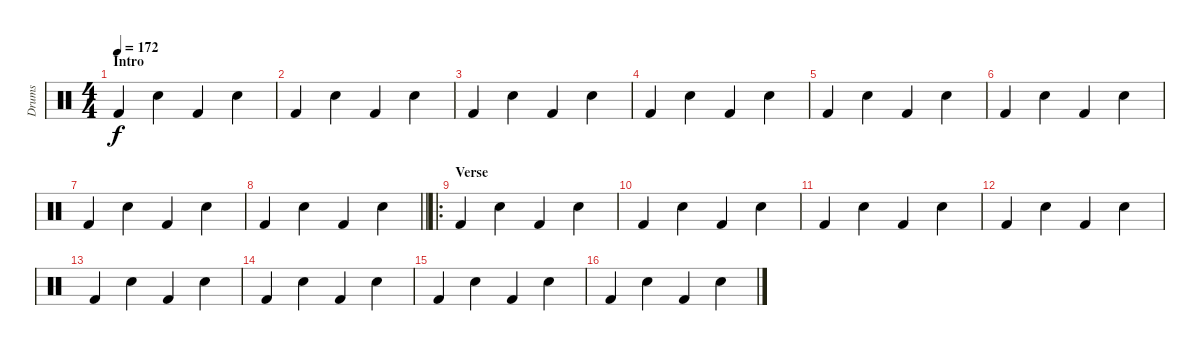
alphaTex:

\track ("Drums" "Drums") {instrument percussion}
\staff {score}
\articulation defaults
\ts (4 4)
\section ("" "Intro")
\tempo 172
\clef neutral
\ks c "Kick (hit) 2".4{dy f} "Snare (hit) 2".4 "Kick (hit) 2".4 "Snare (hit) 2".4
|
"Kick (hit) 2".4 "Snare (hit) 2".4 "Kick (hit) 2".4 "Snare (hit) 2".4 |
"Kick (hit) 2".4 "Snare (hit) 2".4 "Kick (hit) 2".4 "Snare (hit) 2".4 |
"Kick (hit) 2".4 "Snare (hit) 2".4 "Kick (hit) 2".4 "Snare (hit) 2".4 |
"Kick (hit) 2".4 "Snare (hit) 2".4 "Kick (hit) 2".4 "Snare (hit) 2".4 |
"Kick (hit) 2".4 "Snare (hit) 2".4 "Kick (hit) 2".4 "Snare (hit) 2".4 |
"Kick (hit) 2".4 "Snare (hit) 2".4 "Kick (hit) 2".4 "Snare (hit) 2".4 |
\barLineRight lightlight "Kick (hit) 2".4 "Snare (hit) 2".4 "Kick (hit) 2".4 "Snare (hit) 2".4
|
\ro
\section ("" "Verse")
"Kick (hit) 2".4 "Snare (hit) 2".4 "Kick (hit) 2".4 "Snare (hit) 2".4 |
"Kick (hit) 2".4 "Snare (hit) 2".4 "Kick (hit) 2".4 "Snare (hit) 2".4 |
"Kick (hit) 2".4 "Snare (hit) 2".4 "Kick (hit) 2".4 "Snare (hit) 2".4 |
"Kick (hit) 2".4 "Snare (hit) 2".4 "Kick (hit) 2".4 "Snare (hit) 2".4 |
"Kick (hit) 2".4 "Snare (hit) 2".4 "Kick (hit) 2".4 "Snare (hit) 2".4 |
"Kick (hit) 2".4 "Snare (hit) 2".4 "Kick (hit) 2".4 "Snare (hit) 2".4 |
"Kick (hit) 2".4 "Snare (hit) 2".4 "Kick (hit) 2".4 "Snare (hit) 2".4 |
"Kick (hit) 2".4 "Snare (hit) 2".4 "Kick (hit) 2".4 "Snare (hit) 2".4
